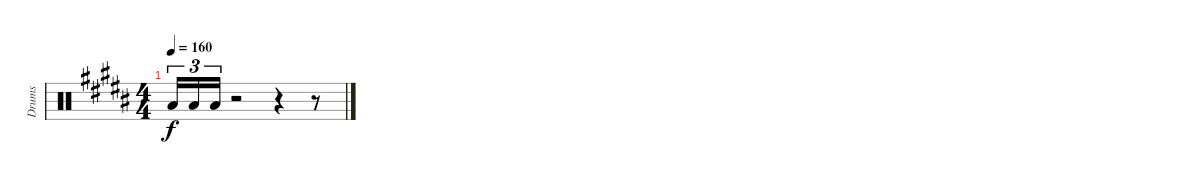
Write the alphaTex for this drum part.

\track ("Drums" "Drums") {instrument percussion}
\staff {score}
\articulation defaults
\ts (4 4)
\tempo 160
\clef neutral
\ks b "Low Tom (hit)".16{tu (3 2) dy f} "Low Tom (hit)".16{tu (3 2)} "Low Floor Tom (hit)".16{tu (3 2)}
r.2 r.4 r.8
